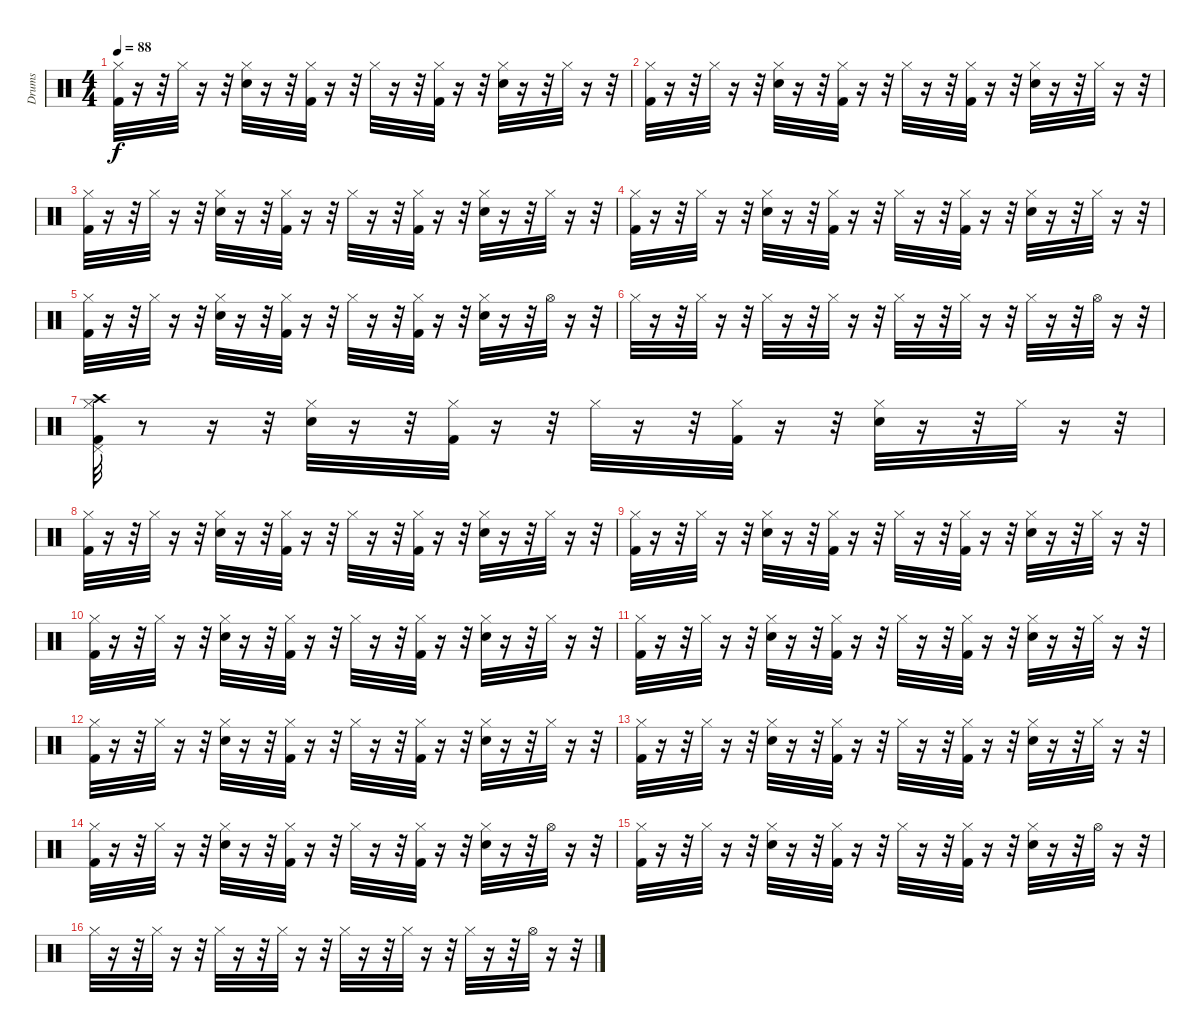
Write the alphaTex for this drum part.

\track ("Drums" "Drums") {instrument percussion}
\staff {score}
\articulation defaults
\ts (4 4)
\tempo 88
\clef neutral
\ks c
("Hi-Hat (closed)" "Kick (hit) 2").32{dy f} r.16 r.32 "Hi-Hat (closed)".32 r.16 r.32 ("Hi-Hat (closed)" "Electric Snare (hit)").32 r.16 r.32 ("Kick (hit) 2" "Hi-Hat (closed)").32 r.16 r.32 "Hi-Hat (closed)".32 r.16 r.32 ("Kick (hit) 2" "Hi-Hat (closed)").32 r.16 r.32 ("Hi-Hat (closed)" "Electric Snare (hit)").32 r.16 r.32 "Hi-Hat (closed)".32 r.16 r.32 |
("Hi-Hat (closed)" "Kick (hit) 2").32 r.16 r.32 "Hi-Hat (closed)".32 r.16 r.32 ("Hi-Hat (closed)" "Electric Snare (hit)").32 r.16 r.32 ("Kick (hit) 2" "Hi-Hat (closed)").32 r.16 r.32 "Hi-Hat (closed)".32 r.16 r.32 ("Kick (hit) 2" "Hi-Hat (closed)").32 r.16 r.32 ("Hi-Hat (closed)" "Electric Snare (hit)").32 r.16 r.32 "Hi-Hat (closed)".32 r.16 r.32 |
("Hi-Hat (closed)" "Kick (hit) 2").32 r.16 r.32 "Hi-Hat (closed)".32 r.16 r.32 ("Hi-Hat (closed)" "Electric Snare (hit)").32 r.16 r.32 ("Kick (hit) 2" "Hi-Hat (closed)").32 r.16 r.32 "Hi-Hat (closed)".32 r.16 r.32 ("Kick (hit) 2" "Hi-Hat (closed)").32 r.16 r.32 ("Hi-Hat (closed)" "Electric Snare (hit)").32 r.16 r.32 "Hi-Hat (closed)".32 r.16 r.32 |
("Hi-Hat (closed)" "Kick (hit) 2").32 r.16 r.32 "Hi-Hat (closed)".32 r.16 r.32 ("Hi-Hat (closed)" "Electric Snare (hit)").32 r.16 r.32 ("Kick (hit) 2" "Hi-Hat (closed)").32 r.16 r.32 "Hi-Hat (closed)".32 r.16 r.32 ("Kick (hit) 2" "Hi-Hat (closed)").32 r.16 r.32 ("Hi-Hat (closed)" "Electric Snare (hit)").32 r.16 r.32 "Hi-Hat (closed)".32 r.16 r.32 |
("Hi-Hat (closed)" "Kick (hit) 2").32 r.16 r.32 "Hi-Hat (closed)".32 r.16 r.32 ("Hi-Hat (closed)" "Electric Snare (hit)").32 r.16 r.32 ("Kick (hit) 2" "Hi-Hat (closed)").32 r.16 r.32 "Hi-Hat (closed)".32 r.16 r.32 ("Kick (hit) 2" "Hi-Hat (closed)").32 r.16 r.32 ("Hi-Hat (closed)" "Electric Snare (hit)").32 r.16 r.32 "Hi-Hat (open)".32 r.16 r.32 |
"Hi-Hat (closed)".32 r.16 r.32 "Hi-Hat (closed)".32 r.16 r.32 "Hi-Hat (closed)".32 r.16 r.32 "Hi-Hat (closed)".32 r.16 r.32 "Hi-Hat (closed)".32 r.16 r.32 "Hi-Hat (closed)".32 r.16 r.32 "Hi-Hat (closed)".32 r.16 r.32 "Hi-Hat (open)".32 r.16 r.32 |
("Crash high (hit)" "Hi-Hat (closed)" "Pedal Hi-Hat (hit)" "Kick (hit) 2").32 r.8 r.16 r.32 ("Hi-Hat (closed)" "Electric Snare (hit)").32 r.16 r.32 ("Kick (hit) 2" "Hi-Hat (closed)").32 r.16 r.32 "Hi-Hat (closed)".32 r.16 r.32 ("Kick (hit) 2" "Hi-Hat (closed)").32 r.16 r.32 ("Hi-Hat (closed)" "Electric Snare (hit)").32 r.16 r.32 "Hi-Hat (closed)".32 r.16 r.32 |
("Hi-Hat (closed)" "Kick (hit) 2").32 r.16 r.32 "Hi-Hat (closed)".32 r.16 r.32 ("Hi-Hat (closed)" "Electric Snare (hit)").32 r.16 r.32 ("Kick (hit) 2" "Hi-Hat (closed)").32 r.16 r.32 "Hi-Hat (closed)".32 r.16 r.32 ("Kick (hit) 2" "Hi-Hat (closed)").32 r.16 r.32 ("Hi-Hat (closed)" "Electric Snare (hit)").32 r.16 r.32 "Hi-Hat (closed)".32 r.16 r.32 |
("Hi-Hat (closed)" "Kick (hit) 2").32 r.16 r.32 "Hi-Hat (closed)".32 r.16 r.32 ("Hi-Hat (closed)" "Electric Snare (hit)").32 r.16 r.32 ("Kick (hit) 2" "Hi-Hat (closed)").32 r.16 r.32 "Hi-Hat (closed)".32 r.16 r.32 ("Kick (hit) 2" "Hi-Hat (closed)").32 r.16 r.32 ("Hi-Hat (closed)" "Electric Snare (hit)").32 r.16 r.32 "Hi-Hat (closed)".32 r.16 r.32 |
("Hi-Hat (closed)" "Kick (hit) 2").32 r.16 r.32 "Hi-Hat (closed)".32 r.16 r.32 ("Hi-Hat (closed)" "Electric Snare (hit)").32 r.16 r.32 ("Kick (hit) 2" "Hi-Hat (closed)").32 r.16 r.32 "Hi-Hat (closed)".32 r.16 r.32 ("Kick (hit) 2" "Hi-Hat (closed)").32 r.16 r.32 ("Hi-Hat (closed)" "Electric Snare (hit)").32 r.16 r.32 "Hi-Hat (closed)".32 r.16 r.32 |
("Hi-Hat (closed)" "Kick (hit) 2").32 r.16 r.32 "Hi-Hat (closed)".32 r.16 r.32 ("Hi-Hat (closed)" "Electric Snare (hit)").32 r.16 r.32 ("Kick (hit) 2" "Hi-Hat (closed)").32 r.16 r.32 "Hi-Hat (closed)".32 r.16 r.32 ("Kick (hit) 2" "Hi-Hat (closed)").32 r.16 r.32 ("Hi-Hat (closed)" "Electric Snare (hit)").32 r.16 r.32 "Hi-Hat (closed)".32 r.16 r.32 |
("Hi-Hat (closed)" "Kick (hit) 2").32 r.16 r.32 "Hi-Hat (closed)".32 r.16 r.32 ("Hi-Hat (closed)" "Electric Snare (hit)").32 r.16 r.32 ("Kick (hit) 2" "Hi-Hat (closed)").32 r.16 r.32 "Hi-Hat (closed)".32 r.16 r.32 ("Kick (hit) 2" "Hi-Hat (closed)").32 r.16 r.32 ("Hi-Hat (closed)" "Electric Snare (hit)").32 r.16 r.32 "Hi-Hat (closed)".32 r.16 r.32 |
("Hi-Hat (closed)" "Kick (hit) 2").32 r.16 r.32 "Hi-Hat (closed)".32 r.16 r.32 ("Hi-Hat (closed)" "Electric Snare (hit)").32 r.16 r.32 ("Kick (hit) 2" "Hi-Hat (closed)").32 r.16 r.32 "Hi-Hat (closed)".32 r.16 r.32 ("Kick (hit) 2" "Hi-Hat (closed)").32 r.16 r.32 ("Hi-Hat (closed)" "Electric Snare (hit)").32 r.16 r.32 "Hi-Hat (closed)".32 r.16 r.32 |
("Hi-Hat (closed)" "Kick (hit) 2").32 r.16 r.32 "Hi-Hat (closed)".32 r.16 r.32 ("Hi-Hat (closed)" "Electric Snare (hit)").32 r.16 r.32 ("Kick (hit) 2" "Hi-Hat (closed)").32 r.16 r.32 "Hi-Hat (closed)".32 r.16 r.32 ("Kick (hit) 2" "Hi-Hat (closed)").32 r.16 r.32 ("Hi-Hat (closed)" "Electric Snare (hit)").32 r.16 r.32 "Hi-Hat (open)".32 r.16 r.32 |
("Hi-Hat (closed)" "Kick (hit) 2").32 r.16 r.32 "Hi-Hat (closed)".32 r.16 r.32 ("Hi-Hat (closed)" "Electric Snare (hit)").32 r.16 r.32 ("Kick (hit) 2" "Hi-Hat (closed)").32 r.16 r.32 "Hi-Hat (closed)".32 r.16 r.32 ("Kick (hit) 2" "Hi-Hat (closed)").32 r.16 r.32 ("Hi-Hat (closed)" "Electric Snare (hit)").32 r.16 r.32 "Hi-Hat (open)".32 r.16 r.32 |
"Hi-Hat (closed)".32 r.16 r.32 "Hi-Hat (closed)".32 r.16 r.32 "Hi-Hat (closed)".32 r.16 r.32 "Hi-Hat (closed)".32 r.16 r.32 "Hi-Hat (closed)".32 r.16 r.32 "Hi-Hat (closed)".32 r.16 r.32 "Hi-Hat (closed)".32 r.16 r.32 "Hi-Hat (open)".32 r.16 r.32
